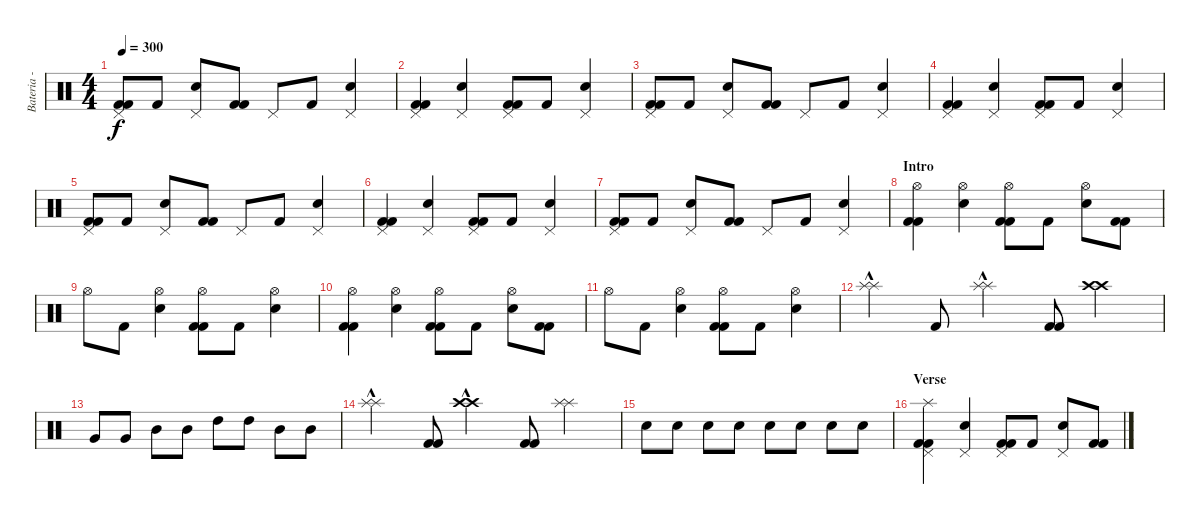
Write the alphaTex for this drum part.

\track ("Bateria - Larzon" "Bateria - ") {instrument percussion}
\staff {score}
\articulation defaults
\ts (4 4)
\tempo 300
\clef neutral
\ks c
("Pedal Hi-Hat (hit)" "Kick (hit) 2" "Kick (hit) 2").8{dy f} "Kick (hit) 2".8 ("Pedal Hi-Hat (hit)" "Snare (hit) 2").8 ("Kick (hit) 2" "Kick (hit) 2").8 "Pedal Hi-Hat (hit)".8 "Kick (hit) 2".8 ("Snare (hit) 2" "Pedal Hi-Hat (hit)").4 |
("Pedal Hi-Hat (hit)" "Kick (hit) 2" "Kick (hit) 2").4 ("Snare (hit) 2" "Pedal Hi-Hat (hit)").4 ("Kick (hit) 2" "Kick (hit) 2" "Pedal Hi-Hat (hit)").8 "Kick (hit) 2".8 ("Pedal Hi-Hat (hit)" "Snare (hit) 2").4 |
("Pedal Hi-Hat (hit)" "Kick (hit) 2" "Kick (hit) 2").8 "Kick (hit) 2".8 ("Pedal Hi-Hat (hit)" "Snare (hit) 2").8 ("Kick (hit) 2" "Kick (hit) 2").8 "Pedal Hi-Hat (hit)".8 "Kick (hit) 2".8 ("Snare (hit) 2" "Pedal Hi-Hat (hit)").4 |
("Pedal Hi-Hat (hit)" "Kick (hit) 2" "Kick (hit) 2").4 ("Snare (hit) 2" "Pedal Hi-Hat (hit)").4 ("Kick (hit) 2" "Kick (hit) 2" "Pedal Hi-Hat (hit)").8 "Kick (hit) 2".8 ("Pedal Hi-Hat (hit)" "Snare (hit) 2").4 |
("Pedal Hi-Hat (hit)" "Kick (hit) 2" "Kick (hit) 2").8 "Kick (hit) 2".8 ("Pedal Hi-Hat (hit)" "Snare (hit) 2").8 ("Kick (hit) 2" "Kick (hit) 2").8 "Pedal Hi-Hat (hit)".8 "Kick (hit) 2".8 ("Snare (hit) 2" "Pedal Hi-Hat (hit)").4 |
("Pedal Hi-Hat (hit)" "Kick (hit) 2" "Kick (hit) 2").4 ("Snare (hit) 2" "Pedal Hi-Hat (hit)").4 ("Kick (hit) 2" "Kick (hit) 2" "Pedal Hi-Hat (hit)").8 "Kick (hit) 2".8 ("Pedal Hi-Hat (hit)" "Snare (hit) 2").4 |
("Pedal Hi-Hat (hit)" "Kick (hit) 2" "Kick (hit) 2").8 "Kick (hit) 2".8 ("Pedal Hi-Hat (hit)" "Snare (hit) 2").8 ("Kick (hit) 2" "Kick (hit) 2").8 "Pedal Hi-Hat (hit)".8 "Kick (hit) 2".8 ("Snare (hit) 2" "Pedal Hi-Hat (hit)").4 |
\section ("" "Intro")
("Kick (hit) 2" "Kick (hit) 2" "Hi-Hat (open)").4 ("Snare (hit) 2" "Hi-Hat (open)").4 ("Kick (hit) 2" "Kick (hit) 2" "Hi-Hat (open)").8 "Kick (hit) 2".8 ("Snare (hit) 2" "Hi-Hat (open)").8 ("Kick (hit) 2" "Kick (hit) 2").8 |
"Hi-Hat (open)".8 "Kick (hit) 2".8 ("Snare (hit) 2" "Hi-Hat (open)").4 ("Kick (hit) 2" "Kick (hit) 2" "Hi-Hat (open)").8 "Kick (hit) 2".8 ("Snare (hit) 2" "Hi-Hat (open)").4 |
("Hi-Hat (open)" "Kick (hit) 2" "Kick (hit) 2").4 ("Snare (hit) 2" "Hi-Hat (open)").4 ("Kick (hit) 2" "Kick (hit) 2" "Hi-Hat (open)").8 "Kick (hit) 2".8 ("Snare (hit) 2" "Hi-Hat (open)").8 ("Kick (hit) 2" "Kick (hit) 2").8 |
"Hi-Hat (open)".8 "Kick (hit) 2".8 ("Snare (hit) 2" "Hi-Hat (open)").4 ("Kick (hit) 2" "Kick (hit) 2" "Hi-Hat (open)").8 "Kick (hit) 2".8 ("Snare (hit) 2" "Hi-Hat (open)").4 |
("Splash (hit)"{hac} "Splash (hit)"{hac}).4 "Kick (hit) 2".8 ("Splash (hit)"{hac} "Splash (hit)"{hac}).4 ("Kick (hit) 2" "Kick (hit) 2").8 ("Crash high (hit)" "Crash high (hit)").4 |
"Very Low Tom (hit)".8 "Very Low Tom (hit)".8 "Mid Tom (hit)".8 "Mid Tom (hit)".8 "High Tom (hit)".8 "High Tom (hit)".8 "Mid Tom (hit)".8 "Mid Tom (hit)".8 |
("Splash (hit)"{hac} "Splash (hit)"{hac}).4 ("Kick (hit) 2" "Kick (hit) 2").8 ("Crash high (hit)"{hac} "Crash high (hit)"{hac}).4 ("Kick (hit) 2" "Kick (hit) 2").8 ("Splash (hit)" "Splash (hit)").4 |
"Electric Snare (hit)".8 "Electric Snare (hit)".8 "Electric Snare (hit)".8 "Electric Snare (hit)".8 "Electric Snare (hit)".8 "Electric Snare (hit)".8 "Electric Snare (hit)".8 "Electric Snare (hit)".8 |
\section ("" "Verse")
("Kick (hit) 2" "Kick (hit) 2" "Pedal Hi-Hat (hit)" "Splash (hit)").4 ("Snare (hit) 2" "Pedal Hi-Hat (hit)").4 ("Kick (hit) 2" "Kick (hit) 2" "Pedal Hi-Hat (hit)").8 "Kick (hit) 2".8 ("Snare (hit) 2" "Pedal Hi-Hat (hit)").8 ("Kick (hit) 2" "Kick (hit) 2").8
